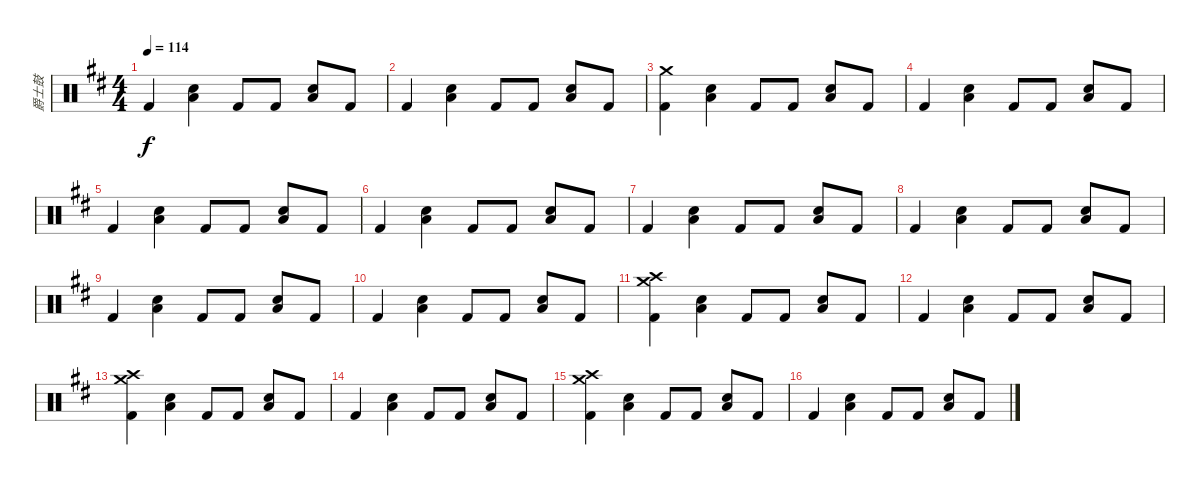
\track ("爵士鼓" "爵士鼓") {instrument percussion}
\staff {score}
\articulation defaults
\ts (4 4)
\tempo 114
\clef neutral
\ks d "Kick (hit) 2".4{dy f}
("Low Tom (hit)" "Snare (hit) 2").4 "Kick (hit) 2".8 "Kick (hit) 2".8 ("Low Tom (hit)" "Snare (hit) 2").8 "Kick (hit) 2".8 |
"Kick (hit) 2".4 ("Low Tom (hit)" "Snare (hit) 2").4 "Kick (hit) 2".8 "Kick (hit) 2".8 ("Low Tom (hit)" "Snare (hit) 2").8 "Kick (hit) 2".8 |
("Kick (hit) 2" "Crash medium (hit)").4 ("Low Tom (hit)" "Snare (hit) 2").4 "Kick (hit) 2".8 "Kick (hit) 2".8 ("Low Tom (hit)" "Snare (hit) 2").8 "Kick (hit) 2".8 |
"Kick (hit) 2".4 ("Low Tom (hit)" "Snare (hit) 2").4 "Kick (hit) 2".8 "Kick (hit) 2".8 ("Low Tom (hit)" "Snare (hit) 2").8 "Kick (hit) 2".8 |
"Kick (hit) 2".4 ("Low Tom (hit)" "Snare (hit) 2").4 "Kick (hit) 2".8 "Kick (hit) 2".8 ("Low Tom (hit)" "Snare (hit) 2").8 "Kick (hit) 2".8 |
"Kick (hit) 2".4 ("Low Tom (hit)" "Snare (hit) 2").4 "Kick (hit) 2".8 "Kick (hit) 2".8 ("Low Tom (hit)" "Snare (hit) 2").8 "Kick (hit) 2".8 |
"Kick (hit) 2".4 ("Low Tom (hit)" "Snare (hit) 2").4 "Kick (hit) 2".8 "Kick (hit) 2".8 ("Low Tom (hit)" "Snare (hit) 2").8 "Kick (hit) 2".8 |
"Kick (hit) 2".4 ("Low Tom (hit)" "Snare (hit) 2").4 "Kick (hit) 2".8 "Kick (hit) 2".8 ("Low Tom (hit)" "Snare (hit) 2").8 "Kick (hit) 2".8 |
"Kick (hit) 2".4 ("Low Tom (hit)" "Snare (hit) 2").4 "Kick (hit) 2".8 "Kick (hit) 2".8 ("Low Tom (hit)" "Snare (hit) 2").8 "Kick (hit) 2".8 |
"Kick (hit) 2".4 ("Low Tom (hit)" "Snare (hit) 2").4 "Kick (hit) 2".8 "Kick (hit) 2".8 ("Low Tom (hit)" "Snare (hit) 2").8 "Kick (hit) 2".8 |
("Kick (hit) 2" "Crash medium (hit)" "Crash high (hit)").4 ("Low Tom (hit)" "Snare (hit) 2").4 "Kick (hit) 2".8 "Kick (hit) 2".8 ("Low Tom (hit)" "Snare (hit) 2").8 "Kick (hit) 2".8 |
"Kick (hit) 2".4 ("Low Tom (hit)" "Snare (hit) 2").4 "Kick (hit) 2".8 "Kick (hit) 2".8 ("Low Tom (hit)" "Snare (hit) 2").8 "Kick (hit) 2".8 |
("Kick (hit) 2" "Crash high (hit)" "Crash medium (hit)").4 ("Low Tom (hit)" "Snare (hit) 2").4 "Kick (hit) 2".8 "Kick (hit) 2".8 ("Low Tom (hit)" "Snare (hit) 2").8 "Kick (hit) 2".8 |
"Kick (hit) 2".4 ("Low Tom (hit)" "Snare (hit) 2").4 "Kick (hit) 2".8 "Kick (hit) 2".8 ("Low Tom (hit)" "Snare (hit) 2").8 "Kick (hit) 2".8 |
("Kick (hit) 2" "Crash medium (hit)" "Crash high (hit)").4 ("Low Tom (hit)" "Snare (hit) 2").4 "Kick (hit) 2".8 "Kick (hit) 2".8 ("Low Tom (hit)" "Snare (hit) 2").8 "Kick (hit) 2".8 |
"Kick (hit) 2".4 ("Low Tom (hit)" "Snare (hit) 2").4 "Kick (hit) 2".8 "Kick (hit) 2".8 ("Low Tom (hit)" "Snare (hit) 2").8 "Kick (hit) 2".8
